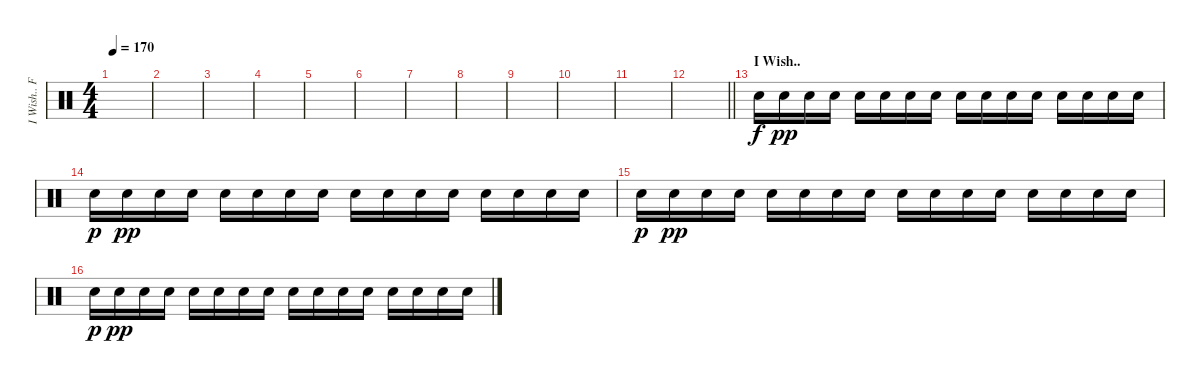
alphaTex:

\track ("I Wish.. Fade In" "I Wish.. F") {instrument percussion}
\staff {score}
\articulation defaults
\ts (4 4)
\tempo 170
\clef neutral
\ks c
|
|
|
|
|
|
|
|
|
|
|
\barLineRight lightlight
|
\section ("" "I Wish..")
"Electric Snare (hit)".16{volume 10} "Electric Snare (hit)".16{dy pp} "Electric Snare (hit)".16 "Electric Snare (hit)".16 "Electric Snare (hit)".16 "Electric Snare (hit)".16 "Electric Snare (hit)".16 "Electric Snare (hit)".16 "Electric Snare (hit)".16 "Electric Snare (hit)".16 "Electric Snare (hit)".16 "Electric Snare (hit)".16 "Electric Snare (hit)".16 "Electric Snare (hit)".16 "Electric Snare (hit)".16 "Electric Snare (hit)".16 |
"Electric Snare (hit)".16{dy p} "Electric Snare (hit)".16{dy pp} "Electric Snare (hit)".16 "Electric Snare (hit)".16 "Electric Snare (hit)".16 "Electric Snare (hit)".16 "Electric Snare (hit)".16 "Electric Snare (hit)".16 "Electric Snare (hit)".16 "Electric Snare (hit)".16 "Electric Snare (hit)".16 "Electric Snare (hit)".16 "Electric Snare (hit)".16 "Electric Snare (hit)".16 "Electric Snare (hit)".16 "Electric Snare (hit)".16 |
"Electric Snare (hit)".16{dy p} "Electric Snare (hit)".16{dy pp} "Electric Snare (hit)".16 "Electric Snare (hit)".16 "Electric Snare (hit)".16 "Electric Snare (hit)".16 "Electric Snare (hit)".16 "Electric Snare (hit)".16 "Electric Snare (hit)".16 "Electric Snare (hit)".16 "Electric Snare (hit)".16 "Electric Snare (hit)".16 "Electric Snare (hit)".16 "Electric Snare (hit)".16 "Electric Snare (hit)".16 "Electric Snare (hit)".16 |
"Electric Snare (hit)".16{dy p} "Electric Snare (hit)".16{dy pp} "Electric Snare (hit)".16 "Electric Snare (hit)".16 "Electric Snare (hit)".16 "Electric Snare (hit)".16 "Electric Snare (hit)".16 "Electric Snare (hit)".16 "Electric Snare (hit)".16 "Electric Snare (hit)".16 "Electric Snare (hit)".16 "Electric Snare (hit)".16 "Electric Snare (hit)".16 "Electric Snare (hit)".16 "Electric Snare (hit)".16 "Electric Snare (hit)".16
